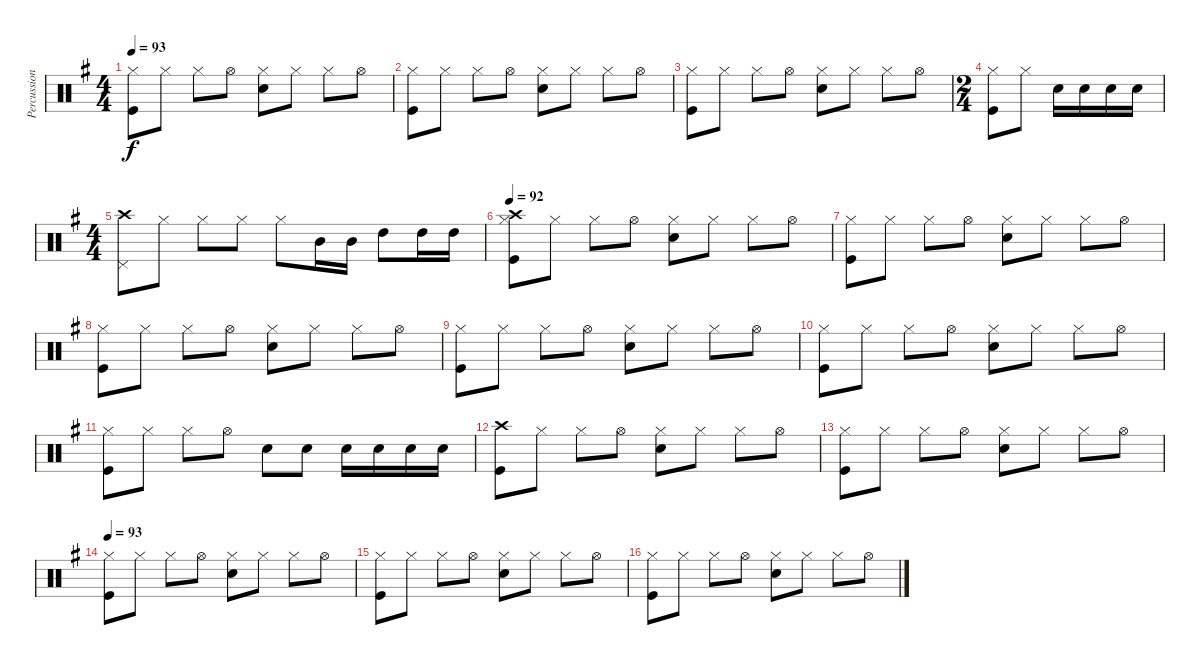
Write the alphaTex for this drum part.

\track ("Percussions" "Percussion") {instrument percussion}
\staff {score}
\articulation defaults
\ts (4 4)
\tempo 93
\clef neutral
\ks g
("Kick (hit)" "Hi-Hat (closed)").8{dy f} "Hi-Hat (closed)".8 "Hi-Hat (closed)".8 "Hi-Hat (open)".8 ("Hi-Hat (closed)" "Snare (hit) 2").8 "Hi-Hat (closed)".8 "Hi-Hat (closed)".8 "Hi-Hat (open)".8 |
("Kick (hit)" "Hi-Hat (closed)").8 "Hi-Hat (closed)".8 "Hi-Hat (closed)".8 "Hi-Hat (open)".8 ("Hi-Hat (closed)" "Snare (hit) 2").8 "Hi-Hat (closed)".8 "Hi-Hat (closed)".8 "Hi-Hat (open)".8 |
("Kick (hit)" "Hi-Hat (closed)").8 "Hi-Hat (closed)".8 "Hi-Hat (closed)".8 "Hi-Hat (open)".8 ("Hi-Hat (closed)" "Snare (hit) 2").8 "Hi-Hat (closed)".8 "Hi-Hat (closed)".8 "Hi-Hat (open)".8 |
\ts (2 4)
("Hi-Hat (closed)" "Kick (hit)").8 "Hi-Hat (closed)".8 "Snare (hit) 2".16{volume 16} "Snare (hit) 2".16{volume 16} "Snare (hit) 2".16{volume 16} "Snare (hit) 2".16{volume 16} |
\ts (4 4)
("Pedal Hi-Hat (hit)" "Crash high (hit)").8{volume 16} "Hi-Hat (closed)".8 "Hi-Hat (closed)".8 "Hi-Hat (closed)".8 "Hi-Hat (closed)".8 "Mid Tom (hit)".16{volume 16} "Mid Tom (hit)".16{volume 16} "High Tom (hit)".8{volume 16} "High Tom (hit)".16{volume 16} "High Tom (hit)".16{volume 16} |
\tempo 92
("Kick (hit)" "Hi-Hat (closed)" "Crash high (hit)").8{volume 16} "Hi-Hat (closed)".8{volume 10} "Hi-Hat (closed)".8 "Hi-Hat (open)".8 ("Hi-Hat (closed)" "Snare (hit) 2").8 "Hi-Hat (closed)".8 "Hi-Hat (closed)".8 "Hi-Hat (open)".8 |
("Kick (hit)" "Hi-Hat (closed)").8 "Hi-Hat (closed)".8 "Hi-Hat (closed)".8 "Hi-Hat (open)".8 ("Hi-Hat (closed)" "Snare (hit) 2").8 "Hi-Hat (closed)".8 "Hi-Hat (closed)".8 "Hi-Hat (open)".8 |
("Kick (hit)" "Hi-Hat (closed)").8 "Hi-Hat (closed)".8 "Hi-Hat (closed)".8 "Hi-Hat (open)".8 ("Hi-Hat (closed)" "Snare (hit) 2").8 "Hi-Hat (closed)".8 "Hi-Hat (closed)".8 "Hi-Hat (open)".8 |
("Kick (hit)" "Hi-Hat (closed)").8 "Hi-Hat (closed)".8 "Hi-Hat (closed)".8 "Hi-Hat (open)".8 ("Hi-Hat (closed)" "Snare (hit) 2").8 "Hi-Hat (closed)".8 "Hi-Hat (closed)".8 "Hi-Hat (open)".8 |
("Kick (hit)" "Hi-Hat (closed)").8 "Hi-Hat (closed)".8 "Hi-Hat (closed)".8 "Hi-Hat (open)".8 ("Hi-Hat (closed)" "Snare (hit) 2").8 "Hi-Hat (closed)".8 "Hi-Hat (closed)".8 "Hi-Hat (open)".8 |
("Kick (hit)" "Hi-Hat (closed)").8 "Hi-Hat (closed)".8 "Hi-Hat (closed)".8 "Hi-Hat (open)".8 "Snare (hit) 2".8 "Snare (hit) 2".8 "Snare (hit) 2".16{volume 16} "Snare (hit) 2".16{volume 16} "Snare (hit) 2".16{volume 16} "Snare (hit) 2".16{volume 16} |
("Kick (hit)" "Crash high (hit)").8{volume 16} "Hi-Hat (closed)".8 "Hi-Hat (closed)".8 "Hi-Hat (open)".8 ("Hi-Hat (closed)" "Snare (hit) 2").8 "Hi-Hat (closed)".8 "Hi-Hat (closed)".8 "Hi-Hat (open)".8 |
("Kick (hit)" "Hi-Hat (closed)").8 "Hi-Hat (closed)".8 "Hi-Hat (closed)".8 "Hi-Hat (open)".8 ("Hi-Hat (closed)" "Snare (hit) 2").8 "Hi-Hat (closed)".8 "Hi-Hat (closed)".8 "Hi-Hat (open)".8 |
\tempo 93
("Kick (hit)" "Hi-Hat (closed)").8 "Hi-Hat (closed)".8 "Hi-Hat (closed)".8 "Hi-Hat (open)".8 ("Hi-Hat (closed)" "Snare (hit) 2").8 "Hi-Hat (closed)".8 "Hi-Hat (closed)".8 "Hi-Hat (open)".8 |
("Kick (hit)" "Hi-Hat (closed)").8 "Hi-Hat (closed)".8 "Hi-Hat (closed)".8 "Hi-Hat (open)".8 ("Hi-Hat (closed)" "Snare (hit) 2").8 "Hi-Hat (closed)".8 "Hi-Hat (closed)".8 "Hi-Hat (open)".8 |
("Kick (hit)" "Hi-Hat (closed)").8 "Hi-Hat (closed)".8 "Hi-Hat (closed)".8 "Hi-Hat (open)".8 ("Hi-Hat (closed)" "Snare (hit) 2").8 "Hi-Hat (closed)".8 "Hi-Hat (closed)".8 "Hi-Hat (open)".8
